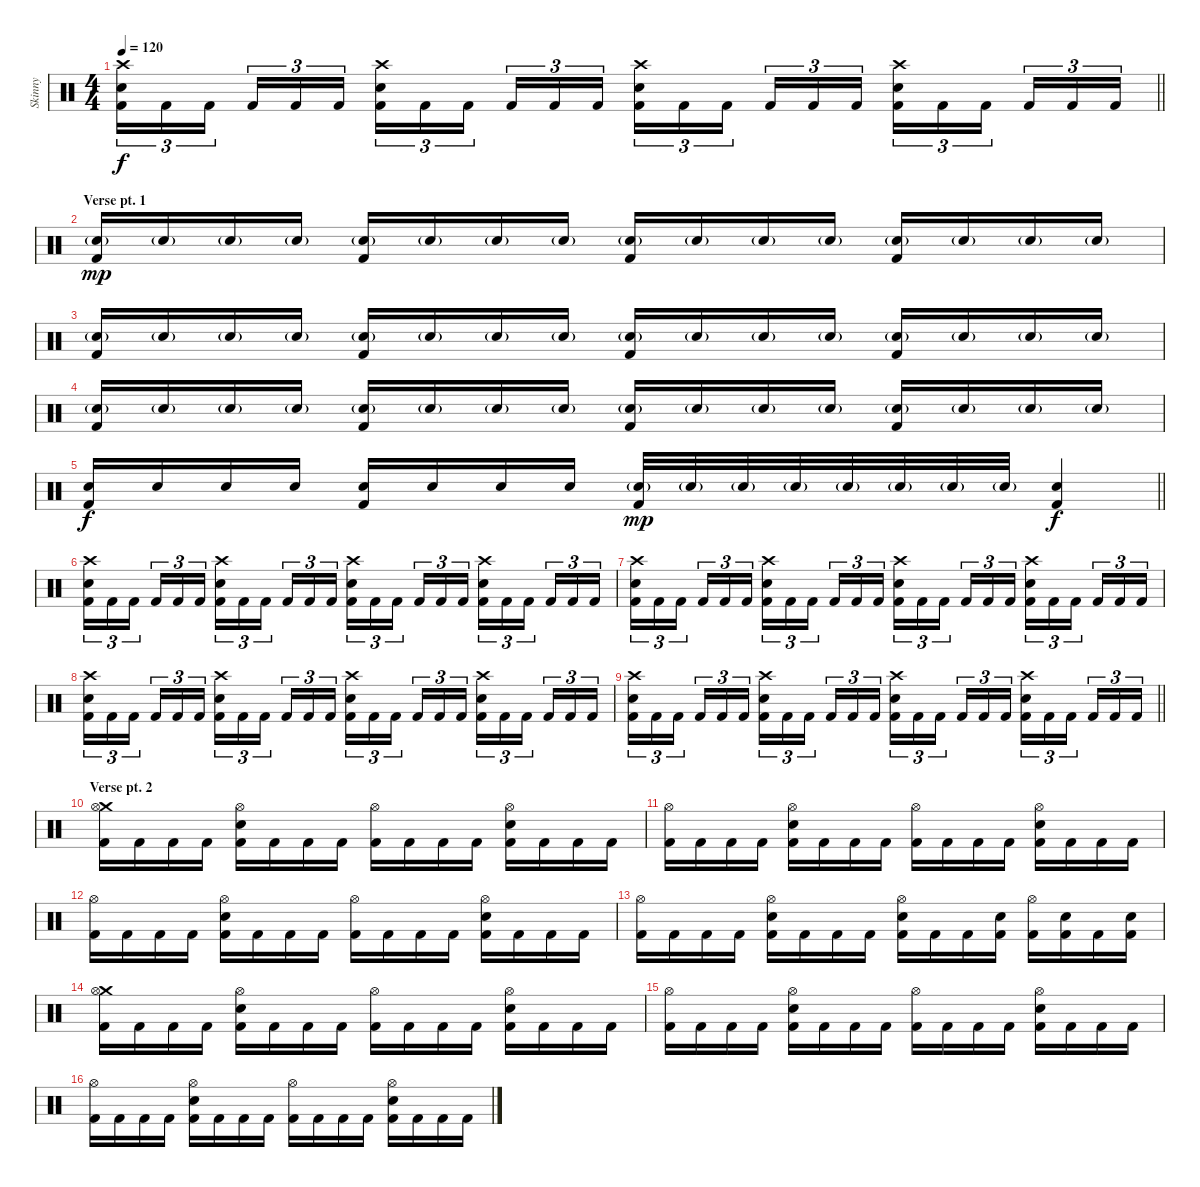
\track ("Skinny" "Skinny") {instrument percussion}
\staff {score}
\articulation defaults
\ts (4 4)
\tempo 120
\clef neutral
\barLineRight lightlight
\ks c
("Crash high (hit)" "Electric Snare (hit)" "Kick (hit) 2").16{tu (3 2) dy f} "Kick (hit) 2".16{tu (3 2)} "Kick (hit) 2".16{tu (3 2) beam splitsecondary} "Kick (hit) 2".16{tu (3 2)} "Kick (hit) 2".16{tu (3 2)} "Kick (hit) 2".16{tu (3 2)} ("Crash high (hit)" "Electric Snare (hit)" "Kick (hit) 2").16{tu (3 2)} "Kick (hit) 2".16{tu (3 2)} "Kick (hit) 2".16{tu (3 2) beam splitsecondary} "Kick (hit) 2".16{tu (3 2)} "Kick (hit) 2".16{tu (3 2)} "Kick (hit) 2".16{tu (3 2)} ("Crash high (hit)" "Electric Snare (hit)" "Kick (hit) 2").16{tu (3 2)} "Kick (hit) 2".16{tu (3 2)} "Kick (hit) 2".16{tu (3 2) beam splitsecondary} "Kick (hit) 2".16{tu (3 2)} "Kick (hit) 2".16{tu (3 2)} "Kick (hit) 2".16{tu (3 2)} ("Crash high (hit)" "Electric Snare (hit)" "Kick (hit) 2").16{tu (3 2)} "Kick (hit) 2".16{tu (3 2)} "Kick (hit) 2".16{tu (3 2) beam splitsecondary} "Kick (hit) 2".16{tu (3 2)} "Kick (hit) 2".16{tu (3 2)} "Kick (hit) 2".16{tu (3 2)} |
\section ("" "Verse pt. 1")
("Electric Snare (hit)"{g} "Kick (hit) 2").16{dy mp} "Electric Snare (hit)"{g}.16 "Electric Snare (hit)"{g}.16 "Electric Snare (hit)"{g}.16 ("Electric Snare (hit)"{g} "Kick (hit) 2").16 "Electric Snare (hit)"{g}.16 "Electric Snare (hit)"{g}.16 "Electric Snare (hit)"{g}.16 ("Electric Snare (hit)"{g} "Kick (hit) 2").16 "Electric Snare (hit)"{g}.16 "Electric Snare (hit)"{g}.16 "Electric Snare (hit)"{g}.16 ("Electric Snare (hit)"{g} "Kick (hit) 2").16 "Electric Snare (hit)"{g}.16 "Electric Snare (hit)"{g}.16 "Electric Snare (hit)"{g}.16 |
("Electric Snare (hit)"{g} "Kick (hit) 2").16 "Electric Snare (hit)"{g}.16 "Electric Snare (hit)"{g}.16 "Electric Snare (hit)"{g}.16 ("Electric Snare (hit)"{g} "Kick (hit) 2").16 "Electric Snare (hit)"{g}.16 "Electric Snare (hit)"{g}.16 "Electric Snare (hit)"{g}.16 ("Electric Snare (hit)"{g} "Kick (hit) 2").16 "Electric Snare (hit)"{g}.16 "Electric Snare (hit)"{g}.16 "Electric Snare (hit)"{g}.16 ("Electric Snare (hit)"{g} "Kick (hit) 2").16 "Electric Snare (hit)"{g}.16 "Electric Snare (hit)"{g}.16 "Electric Snare (hit)"{g}.16 |
("Electric Snare (hit)"{g} "Kick (hit) 2").16 "Electric Snare (hit)"{g}.16 "Electric Snare (hit)"{g}.16 "Electric Snare (hit)"{g}.16 ("Electric Snare (hit)"{g} "Kick (hit) 2").16 "Electric Snare (hit)"{g}.16 "Electric Snare (hit)"{g}.16 "Electric Snare (hit)"{g}.16 ("Electric Snare (hit)"{g} "Kick (hit) 2").16 "Electric Snare (hit)"{g}.16 "Electric Snare (hit)"{g}.16 "Electric Snare (hit)"{g}.16 ("Electric Snare (hit)"{g} "Kick (hit) 2").16 "Electric Snare (hit)"{g}.16 "Electric Snare (hit)"{g}.16 "Electric Snare (hit)"{g}.16 |
\barLineRight lightlight
("Electric Snare (hit)" "Kick (hit) 2").16{dy f} "Electric Snare (hit)".16 "Electric Snare (hit)".16 "Electric Snare (hit)".16 ("Electric Snare (hit)" "Kick (hit) 2").16 "Electric Snare (hit)".16 "Electric Snare (hit)".16 "Electric Snare (hit)".16 ("Electric Snare (hit)"{g} "Kick (hit) 2").32{dy mp} "Electric Snare (hit)"{g}.32 "Electric Snare (hit)"{g}.32 "Electric Snare (hit)"{g}.32 "Electric Snare (hit)"{g}.32 "Electric Snare (hit)"{g}.32 "Electric Snare (hit)"{g}.32 "Electric Snare (hit)"{g}.32 ("Electric Snare (hit)" "Kick (hit) 2").4{dy f} |
("Crash high (hit)" "Electric Snare (hit)" "Kick (hit) 2").16{tu (3 2)} "Kick (hit) 2".16{tu (3 2)} "Kick (hit) 2".16{tu (3 2) beam splitsecondary} "Kick (hit) 2".16{tu (3 2)} "Kick (hit) 2".16{tu (3 2)} "Kick (hit) 2".16{tu (3 2)} ("Crash high (hit)" "Electric Snare (hit)" "Kick (hit) 2").16{tu (3 2)} "Kick (hit) 2".16{tu (3 2)} "Kick (hit) 2".16{tu (3 2) beam splitsecondary} "Kick (hit) 2".16{tu (3 2)} "Kick (hit) 2".16{tu (3 2)} "Kick (hit) 2".16{tu (3 2)} ("Crash high (hit)" "Electric Snare (hit)" "Kick (hit) 2").16{tu (3 2)} "Kick (hit) 2".16{tu (3 2)} "Kick (hit) 2".16{tu (3 2) beam splitsecondary} "Kick (hit) 2".16{tu (3 2)} "Kick (hit) 2".16{tu (3 2)} "Kick (hit) 2".16{tu (3 2)} ("Crash high (hit)" "Electric Snare (hit)" "Kick (hit) 2").16{tu (3 2)} "Kick (hit) 2".16{tu (3 2)} "Kick (hit) 2".16{tu (3 2) beam splitsecondary} "Kick (hit) 2".16{tu (3 2)} "Kick (hit) 2".16{tu (3 2)} "Kick (hit) 2".16{tu (3 2)} |
("Crash high (hit)" "Electric Snare (hit)" "Kick (hit) 2").16{tu (3 2)} "Kick (hit) 2".16{tu (3 2)} "Kick (hit) 2".16{tu (3 2) beam splitsecondary} "Kick (hit) 2".16{tu (3 2)} "Kick (hit) 2".16{tu (3 2)} "Kick (hit) 2".16{tu (3 2)} ("Crash high (hit)" "Electric Snare (hit)" "Kick (hit) 2").16{tu (3 2)} "Kick (hit) 2".16{tu (3 2)} "Kick (hit) 2".16{tu (3 2) beam splitsecondary} "Kick (hit) 2".16{tu (3 2)} "Kick (hit) 2".16{tu (3 2)} "Kick (hit) 2".16{tu (3 2)} ("Crash high (hit)" "Electric Snare (hit)" "Kick (hit) 2").16{tu (3 2)} "Kick (hit) 2".16{tu (3 2)} "Kick (hit) 2".16{tu (3 2) beam splitsecondary} "Kick (hit) 2".16{tu (3 2)} "Kick (hit) 2".16{tu (3 2)} "Kick (hit) 2".16{tu (3 2)} ("Crash high (hit)" "Electric Snare (hit)" "Kick (hit) 2").16{tu (3 2)} "Kick (hit) 2".16{tu (3 2)} "Kick (hit) 2".16{tu (3 2) beam splitsecondary} "Kick (hit) 2".16{tu (3 2)} "Kick (hit) 2".16{tu (3 2)} "Kick (hit) 2".16{tu (3 2)} |
("Crash high (hit)" "Electric Snare (hit)" "Kick (hit) 2").16{tu (3 2)} "Kick (hit) 2".16{tu (3 2)} "Kick (hit) 2".16{tu (3 2) beam splitsecondary} "Kick (hit) 2".16{tu (3 2)} "Kick (hit) 2".16{tu (3 2)} "Kick (hit) 2".16{tu (3 2)} ("Crash high (hit)" "Electric Snare (hit)" "Kick (hit) 2").16{tu (3 2)} "Kick (hit) 2".16{tu (3 2)} "Kick (hit) 2".16{tu (3 2) beam splitsecondary} "Kick (hit) 2".16{tu (3 2)} "Kick (hit) 2".16{tu (3 2)} "Kick (hit) 2".16{tu (3 2)} ("Crash high (hit)" "Electric Snare (hit)" "Kick (hit) 2").16{tu (3 2)} "Kick (hit) 2".16{tu (3 2)} "Kick (hit) 2".16{tu (3 2) beam splitsecondary} "Kick (hit) 2".16{tu (3 2)} "Kick (hit) 2".16{tu (3 2)} "Kick (hit) 2".16{tu (3 2)} ("Crash high (hit)" "Electric Snare (hit)" "Kick (hit) 2").16{tu (3 2)} "Kick (hit) 2".16{tu (3 2)} "Kick (hit) 2".16{tu (3 2) beam splitsecondary} "Kick (hit) 2".16{tu (3 2)} "Kick (hit) 2".16{tu (3 2)} "Kick (hit) 2".16{tu (3 2)} |
\barLineRight lightlight
("Crash high (hit)" "Electric Snare (hit)" "Kick (hit) 2").16{tu (3 2)} "Kick (hit) 2".16{tu (3 2)} "Kick (hit) 2".16{tu (3 2) beam splitsecondary} "Kick (hit) 2".16{tu (3 2)} "Kick (hit) 2".16{tu (3 2)} "Kick (hit) 2".16{tu (3 2)} ("Crash high (hit)" "Electric Snare (hit)" "Kick (hit) 2").16{tu (3 2)} "Kick (hit) 2".16{tu (3 2)} "Kick (hit) 2".16{tu (3 2) beam splitsecondary} "Kick (hit) 2".16{tu (3 2)} "Kick (hit) 2".16{tu (3 2)} "Kick (hit) 2".16{tu (3 2)} ("Crash high (hit)" "Electric Snare (hit)" "Kick (hit) 2").16{tu (3 2)} "Kick (hit) 2".16{tu (3 2)} "Kick (hit) 2".16{tu (3 2) beam splitsecondary} "Kick (hit) 2".16{tu (3 2)} "Kick (hit) 2".16{tu (3 2)} "Kick (hit) 2".16{tu (3 2)} ("Crash high (hit)" "Electric Snare (hit)" "Kick (hit) 2").16{tu (3 2)} "Kick (hit) 2".16{tu (3 2)} "Kick (hit) 2".16{tu (3 2) beam splitsecondary} "Kick (hit) 2".16{tu (3 2)} "Kick (hit) 2".16{tu (3 2)} "Kick (hit) 2".16{tu (3 2)} |
\section ("" "Verse pt. 2")
("Crash medium (hit)" "Hi-Hat (open)" "Kick (hit) 2").16 "Kick (hit) 2".16 "Kick (hit) 2".16 "Kick (hit) 2".16 ("Hi-Hat (open)" "Electric Snare (hit)" "Kick (hit) 2").16 "Kick (hit) 2".16 "Kick (hit) 2".16 "Kick (hit) 2".16 ("Hi-Hat (open)" "Kick (hit) 2").16 "Kick (hit) 2".16 "Kick (hit) 2".16 "Kick (hit) 2".16 ("Hi-Hat (open)" "Electric Snare (hit)" "Kick (hit) 2").16 "Kick (hit) 2".16 "Kick (hit) 2".16 "Kick (hit) 2".16 |
("Hi-Hat (open)" "Kick (hit) 2").16 "Kick (hit) 2".16 "Kick (hit) 2".16 "Kick (hit) 2".16 ("Hi-Hat (open)" "Electric Snare (hit)" "Kick (hit) 2").16 "Kick (hit) 2".16 "Kick (hit) 2".16 "Kick (hit) 2".16 ("Hi-Hat (open)" "Kick (hit) 2").16 "Kick (hit) 2".16 "Kick (hit) 2".16 "Kick (hit) 2".16 ("Hi-Hat (open)" "Electric Snare (hit)" "Kick (hit) 2").16 "Kick (hit) 2".16 "Kick (hit) 2".16 "Kick (hit) 2".16 |
("Hi-Hat (open)" "Kick (hit) 2").16 "Kick (hit) 2".16 "Kick (hit) 2".16 "Kick (hit) 2".16 ("Hi-Hat (open)" "Electric Snare (hit)" "Kick (hit) 2").16 "Kick (hit) 2".16 "Kick (hit) 2".16 "Kick (hit) 2".16 ("Hi-Hat (open)" "Kick (hit) 2").16 "Kick (hit) 2".16 "Kick (hit) 2".16 "Kick (hit) 2".16 ("Hi-Hat (open)" "Electric Snare (hit)" "Kick (hit) 2").16 "Kick (hit) 2".16 "Kick (hit) 2".16 "Kick (hit) 2".16 |
("Hi-Hat (open)" "Kick (hit) 2").16 "Kick (hit) 2".16 "Kick (hit) 2".16 "Kick (hit) 2".16 ("Hi-Hat (open)" "Electric Snare (hit)" "Kick (hit) 2").16 "Kick (hit) 2".16 "Kick (hit) 2".16 "Kick (hit) 2".16 ("Hi-Hat (open)" "Electric Snare (hit)" "Kick (hit) 2").16 "Kick (hit) 2".16 "Kick (hit) 2".16 ("Electric Snare (hit)" "Kick (hit) 2").16 ("Hi-Hat (open)" "Kick (hit) 2").16 ("Electric Snare (hit)" "Kick (hit) 2").16 "Kick (hit) 2".16 ("Electric Snare (hit)" "Kick (hit) 2").16 |
("Crash medium (hit)" "Hi-Hat (open)" "Kick (hit) 2").16 "Kick (hit) 2".16 "Kick (hit) 2".16 "Kick (hit) 2".16 ("Hi-Hat (open)" "Electric Snare (hit)" "Kick (hit) 2").16 "Kick (hit) 2".16 "Kick (hit) 2".16 "Kick (hit) 2".16 ("Hi-Hat (open)" "Kick (hit) 2").16 "Kick (hit) 2".16 "Kick (hit) 2".16 "Kick (hit) 2".16 ("Hi-Hat (open)" "Electric Snare (hit)" "Kick (hit) 2").16 "Kick (hit) 2".16 "Kick (hit) 2".16 "Kick (hit) 2".16 |
("Hi-Hat (open)" "Kick (hit) 2").16 "Kick (hit) 2".16 "Kick (hit) 2".16 "Kick (hit) 2".16 ("Hi-Hat (open)" "Electric Snare (hit)" "Kick (hit) 2").16 "Kick (hit) 2".16 "Kick (hit) 2".16 "Kick (hit) 2".16 ("Hi-Hat (open)" "Kick (hit) 2").16 "Kick (hit) 2".16 "Kick (hit) 2".16 "Kick (hit) 2".16 ("Hi-Hat (open)" "Electric Snare (hit)" "Kick (hit) 2").16 "Kick (hit) 2".16 "Kick (hit) 2".16 "Kick (hit) 2".16 |
("Hi-Hat (open)" "Kick (hit) 2").16 "Kick (hit) 2".16 "Kick (hit) 2".16 "Kick (hit) 2".16 ("Hi-Hat (open)" "Electric Snare (hit)" "Kick (hit) 2").16 "Kick (hit) 2".16 "Kick (hit) 2".16 "Kick (hit) 2".16 ("Hi-Hat (open)" "Kick (hit) 2").16 "Kick (hit) 2".16 "Kick (hit) 2".16 "Kick (hit) 2".16 ("Hi-Hat (open)" "Electric Snare (hit)" "Kick (hit) 2").16 "Kick (hit) 2".16 "Kick (hit) 2".16 "Kick (hit) 2".16
